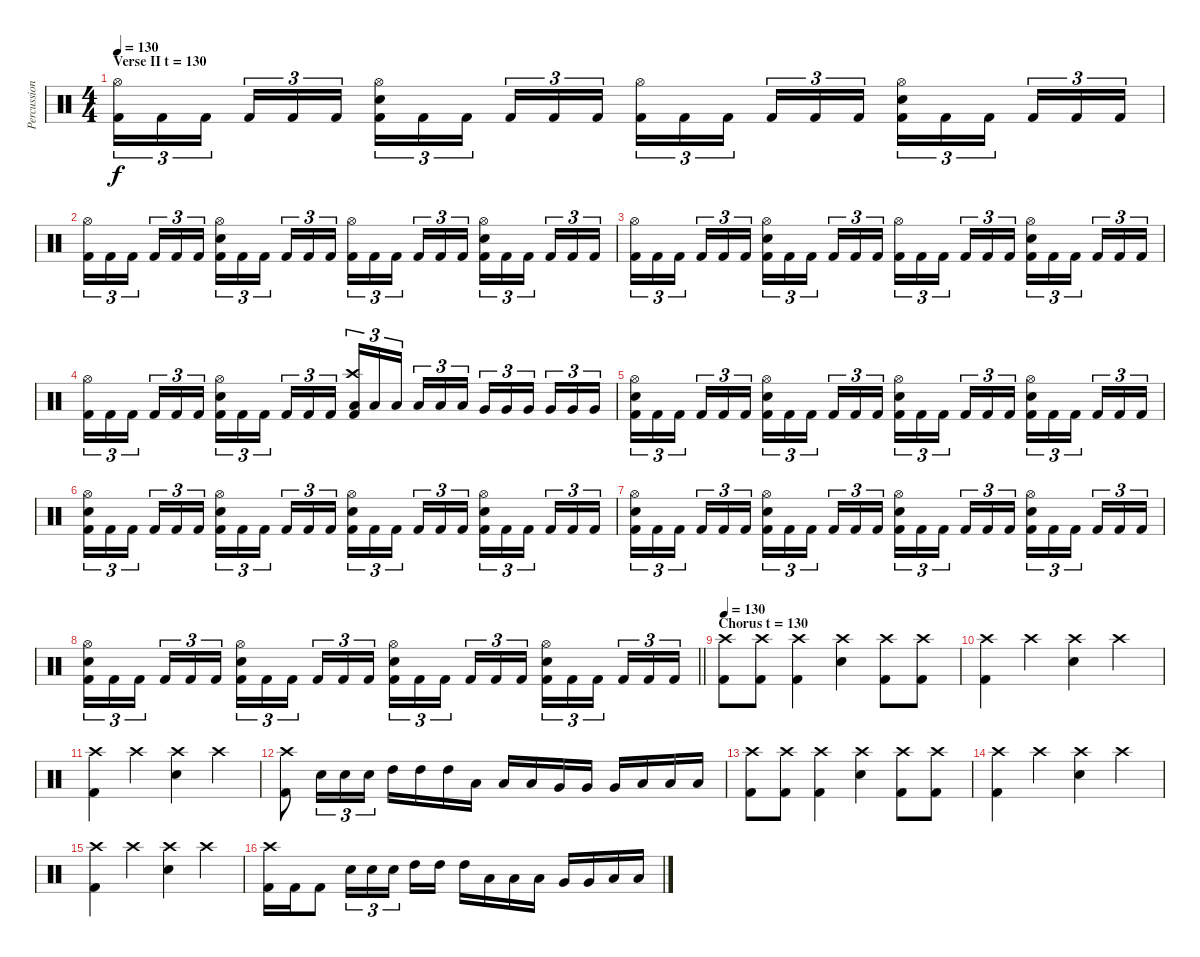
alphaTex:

\track ("Percussion" "Percussion") {instrument percussion}
\staff {score}
\articulation defaults
\ts (4 4)
\section ("" "Verse II t = 130")
\tempo 130
\clef neutral
\ks c
("Hi-Hat (open)" "Kick (hit) 2").16{tu (3 2) dy f} "Kick (hit) 2".16{tu (3 2)} "Kick (hit) 2".16{tu (3 2) beam splitsecondary} "Kick (hit) 2".16{tu (3 2)} "Kick (hit) 2".16{tu (3 2)} "Kick (hit) 2".16{tu (3 2)} ("Hi-Hat (open)" "Electric Snare (hit)" "Kick (hit) 2").16{tu (3 2)} "Kick (hit) 2".16{tu (3 2)} "Kick (hit) 2".16{tu (3 2) beam splitsecondary} "Kick (hit) 2".16{tu (3 2)} "Kick (hit) 2".16{tu (3 2)} "Kick (hit) 2".16{tu (3 2)} ("Hi-Hat (open)" "Kick (hit) 2").16{tu (3 2)} "Kick (hit) 2".16{tu (3 2)} "Kick (hit) 2".16{tu (3 2) beam splitsecondary} "Kick (hit) 2".16{tu (3 2)} "Kick (hit) 2".16{tu (3 2)} "Kick (hit) 2".16{tu (3 2)} ("Hi-Hat (open)" "Electric Snare (hit)" "Kick (hit) 2").16{tu (3 2)} "Kick (hit) 2".16{tu (3 2)} "Kick (hit) 2".16{tu (3 2) beam splitsecondary} "Kick (hit) 2".16{tu (3 2)} "Kick (hit) 2".16{tu (3 2)} "Kick (hit) 2".16{tu (3 2)} |
("Hi-Hat (open)" "Kick (hit) 2").16{tu (3 2)} "Kick (hit) 2".16{tu (3 2)} "Kick (hit) 2".16{tu (3 2) beam splitsecondary} "Kick (hit) 2".16{tu (3 2)} "Kick (hit) 2".16{tu (3 2)} "Kick (hit) 2".16{tu (3 2)} ("Hi-Hat (open)" "Electric Snare (hit)" "Kick (hit) 2").16{tu (3 2)} "Kick (hit) 2".16{tu (3 2)} "Kick (hit) 2".16{tu (3 2) beam splitsecondary} "Kick (hit) 2".16{tu (3 2)} "Kick (hit) 2".16{tu (3 2)} "Kick (hit) 2".16{tu (3 2)} ("Hi-Hat (open)" "Kick (hit) 2").16{tu (3 2)} "Kick (hit) 2".16{tu (3 2)} "Kick (hit) 2".16{tu (3 2) beam splitsecondary} "Kick (hit) 2".16{tu (3 2)} "Kick (hit) 2".16{tu (3 2)} "Kick (hit) 2".16{tu (3 2)} ("Hi-Hat (open)" "Electric Snare (hit)" "Kick (hit) 2").16{tu (3 2)} "Kick (hit) 2".16{tu (3 2)} "Kick (hit) 2".16{tu (3 2) beam splitsecondary} "Kick (hit) 2".16{tu (3 2)} "Kick (hit) 2".16{tu (3 2)} "Kick (hit) 2".16{tu (3 2)} |
("Hi-Hat (open)" "Kick (hit) 2").16{tu (3 2)} "Kick (hit) 2".16{tu (3 2)} "Kick (hit) 2".16{tu (3 2) beam splitsecondary} "Kick (hit) 2".16{tu (3 2)} "Kick (hit) 2".16{tu (3 2)} "Kick (hit) 2".16{tu (3 2)} ("Hi-Hat (open)" "Electric Snare (hit)" "Kick (hit) 2").16{tu (3 2)} "Kick (hit) 2".16{tu (3 2)} "Kick (hit) 2".16{tu (3 2) beam splitsecondary} "Kick (hit) 2".16{tu (3 2)} "Kick (hit) 2".16{tu (3 2)} "Kick (hit) 2".16{tu (3 2)} ("Hi-Hat (open)" "Kick (hit) 2").16{tu (3 2)} "Kick (hit) 2".16{tu (3 2)} "Kick (hit) 2".16{tu (3 2) beam splitsecondary} "Kick (hit) 2".16{tu (3 2)} "Kick (hit) 2".16{tu (3 2)} "Kick (hit) 2".16{tu (3 2)} ("Hi-Hat (open)" "Electric Snare (hit)" "Kick (hit) 2").16{tu (3 2)} "Kick (hit) 2".16{tu (3 2)} "Kick (hit) 2".16{tu (3 2) beam splitsecondary} "Kick (hit) 2".16{tu (3 2)} "Kick (hit) 2".16{tu (3 2)} "Kick (hit) 2".16{tu (3 2)} |
("Hi-Hat (open)" "Kick (hit) 2").16{tu (3 2)} "Kick (hit) 2".16{tu (3 2)} "Kick (hit) 2".16{tu (3 2) beam splitsecondary} "Kick (hit) 2".16{tu (3 2)} "Kick (hit) 2".16{tu (3 2)} "Kick (hit) 2".16{tu (3 2)} ("Hi-Hat (open)" "Electric Snare (hit)" "Kick (hit) 2").16{tu (3 2)} "Kick (hit) 2".16{tu (3 2)} "Kick (hit) 2".16{tu (3 2) beam splitsecondary} "Kick (hit) 2".16{tu (3 2)} "Kick (hit) 2".16{tu (3 2)} "Kick (hit) 2".16{tu (3 2)} ("Crash high (hit)" "Low Tom (hit)" "Kick (hit) 2").16{tu (3 2)} "Low Tom (hit)".16{tu (3 2)} "Low Tom (hit)".16{tu (3 2) beam splitsecondary} "Low Tom (hit)".16{tu (3 2)} "Low Tom (hit)".16{tu (3 2)} "Low Tom (hit)".16{tu (3 2)} "Very Low Tom (hit)".16{tu (3 2)} "Very Low Tom (hit)".16{tu (3 2)} "Very Low Tom (hit)".16{tu (3 2) beam splitsecondary} "Very Low Tom (hit)".16{tu (3 2)} "Very Low Tom (hit)".16{tu (3 2)} "Very Low Tom (hit)".16{tu (3 2)} |
("Hi-Hat (open)" "Electric Snare (hit)" "Kick (hit) 2").16{tu (3 2)} "Kick (hit) 2".16{tu (3 2)} "Kick (hit) 2".16{tu (3 2) beam splitsecondary} "Kick (hit) 2".16{tu (3 2)} "Kick (hit) 2".16{tu (3 2)} "Kick (hit) 2".16{tu (3 2)} ("Hi-Hat (open)" "Electric Snare (hit)" "Kick (hit) 2").16{tu (3 2)} "Kick (hit) 2".16{tu (3 2)} "Kick (hit) 2".16{tu (3 2) beam splitsecondary} "Kick (hit) 2".16{tu (3 2)} "Kick (hit) 2".16{tu (3 2)} "Kick (hit) 2".16{tu (3 2)} ("Hi-Hat (open)" "Electric Snare (hit)" "Kick (hit) 2").16{tu (3 2)} "Kick (hit) 2".16{tu (3 2)} "Kick (hit) 2".16{tu (3 2) beam splitsecondary} "Kick (hit) 2".16{tu (3 2)} "Kick (hit) 2".16{tu (3 2)} "Kick (hit) 2".16{tu (3 2)} ("Hi-Hat (open)" "Electric Snare (hit)" "Kick (hit) 2").16{tu (3 2)} "Kick (hit) 2".16{tu (3 2)} "Kick (hit) 2".16{tu (3 2) beam splitsecondary} "Kick (hit) 2".16{tu (3 2)} "Kick (hit) 2".16{tu (3 2)} "Kick (hit) 2".16{tu (3 2)} |
("Hi-Hat (open)" "Electric Snare (hit)" "Kick (hit) 2").16{tu (3 2)} "Kick (hit) 2".16{tu (3 2)} "Kick (hit) 2".16{tu (3 2) beam splitsecondary} "Kick (hit) 2".16{tu (3 2)} "Kick (hit) 2".16{tu (3 2)} "Kick (hit) 2".16{tu (3 2)} ("Hi-Hat (open)" "Electric Snare (hit)" "Kick (hit) 2").16{tu (3 2)} "Kick (hit) 2".16{tu (3 2)} "Kick (hit) 2".16{tu (3 2) beam splitsecondary} "Kick (hit) 2".16{tu (3 2)} "Kick (hit) 2".16{tu (3 2)} "Kick (hit) 2".16{tu (3 2)} ("Hi-Hat (open)" "Electric Snare (hit)" "Kick (hit) 2").16{tu (3 2)} "Kick (hit) 2".16{tu (3 2)} "Kick (hit) 2".16{tu (3 2) beam splitsecondary} "Kick (hit) 2".16{tu (3 2)} "Kick (hit) 2".16{tu (3 2)} "Kick (hit) 2".16{tu (3 2)} ("Hi-Hat (open)" "Electric Snare (hit)" "Kick (hit) 2").16{tu (3 2)} "Kick (hit) 2".16{tu (3 2)} "Kick (hit) 2".16{tu (3 2) beam splitsecondary} "Kick (hit) 2".16{tu (3 2)} "Kick (hit) 2".16{tu (3 2)} "Kick (hit) 2".16{tu (3 2)} |
("Hi-Hat (open)" "Electric Snare (hit)" "Kick (hit) 2").16{tu (3 2)} "Kick (hit) 2".16{tu (3 2)} "Kick (hit) 2".16{tu (3 2) beam splitsecondary} "Kick (hit) 2".16{tu (3 2)} "Kick (hit) 2".16{tu (3 2)} "Kick (hit) 2".16{tu (3 2)} ("Hi-Hat (open)" "Electric Snare (hit)" "Kick (hit) 2").16{tu (3 2)} "Kick (hit) 2".16{tu (3 2)} "Kick (hit) 2".16{tu (3 2) beam splitsecondary} "Kick (hit) 2".16{tu (3 2)} "Kick (hit) 2".16{tu (3 2)} "Kick (hit) 2".16{tu (3 2)} ("Hi-Hat (open)" "Electric Snare (hit)" "Kick (hit) 2").16{tu (3 2)} "Kick (hit) 2".16{tu (3 2)} "Kick (hit) 2".16{tu (3 2) beam splitsecondary} "Kick (hit) 2".16{tu (3 2)} "Kick (hit) 2".16{tu (3 2)} "Kick (hit) 2".16{tu (3 2)} ("Hi-Hat (open)" "Electric Snare (hit)" "Kick (hit) 2").16{tu (3 2)} "Kick (hit) 2".16{tu (3 2)} "Kick (hit) 2".16{tu (3 2) beam splitsecondary} "Kick (hit) 2".16{tu (3 2)} "Kick (hit) 2".16{tu (3 2)} "Kick (hit) 2".16{tu (3 2)} |
\barLineRight lightlight
("Hi-Hat (open)" "Electric Snare (hit)" "Kick (hit) 2").16{tu (3 2)} "Kick (hit) 2".16{tu (3 2)} "Kick (hit) 2".16{tu (3 2) beam splitsecondary} "Kick (hit) 2".16{tu (3 2)} "Kick (hit) 2".16{tu (3 2)} "Kick (hit) 2".16{tu (3 2)} ("Hi-Hat (open)" "Electric Snare (hit)" "Kick (hit) 2").16{tu (3 2)} "Kick (hit) 2".16{tu (3 2)} "Kick (hit) 2".16{tu (3 2) beam splitsecondary} "Kick (hit) 2".16{tu (3 2)} "Kick (hit) 2".16{tu (3 2)} "Kick (hit) 2".16{tu (3 2)} ("Hi-Hat (open)" "Electric Snare (hit)" "Kick (hit) 2").16{tu (3 2)} "Kick (hit) 2".16{tu (3 2)} "Kick (hit) 2".16{tu (3 2) beam splitsecondary} "Kick (hit) 2".16{tu (3 2)} "Kick (hit) 2".16{tu (3 2)} "Kick (hit) 2".16{tu (3 2)} ("Hi-Hat (open)" "Electric Snare (hit)" "Kick (hit) 2").16{tu (3 2)} "Kick (hit) 2".16{tu (3 2)} "Kick (hit) 2".16{tu (3 2) beam splitsecondary} "Kick (hit) 2".16{tu (3 2)} "Kick (hit) 2".16{tu (3 2)} "Kick (hit) 2".16{tu (3 2)} |
\section ("" "Chorus t = 130")
\tempo 130
("Crash high (hit)" "Kick (hit) 2").8 ("Crash high (hit)" "Kick (hit) 2").8 ("Crash high (hit)" "Kick (hit) 2").4 ("Crash high (hit)" "Electric Snare (hit)").4 ("Crash high (hit)" "Kick (hit) 2").8 ("Crash high (hit)" "Kick (hit) 2").8 |
("Crash high (hit)" "Kick (hit) 2").4 "Crash high (hit)".4 ("Crash high (hit)" "Electric Snare (hit)").4 "Crash high (hit)".4 |
("Crash high (hit)" "Kick (hit) 2").4 "Crash high (hit)".4 ("Crash high (hit)" "Electric Snare (hit)").4 "Crash high (hit)".4 |
("Crash high (hit)" "Kick (hit) 2").8 "Electric Snare (hit)".16{tu (3 2)} "Electric Snare (hit)".16{tu (3 2)} "Electric Snare (hit)".16{tu (3 2)} "High Tom (hit)".16 "High Tom (hit)".16 "High Tom (hit)".16 "Low Tom (hit)".16 "Low Tom (hit)".16 "Low Tom (hit)".16 "Very Low Tom (hit)".16 "Very Low Tom (hit)".16 "Very Low Tom (hit)".16 "Low Floor Tom (hit)".16 "Low Floor Tom (hit)".16 "Low Floor Tom (hit)".16 |
("Crash high (hit)" "Kick (hit) 2").8 ("Crash high (hit)" "Kick (hit) 2").8 ("Crash high (hit)" "Kick (hit) 2").4 ("Crash high (hit)" "Electric Snare (hit)").4 ("Crash high (hit)" "Kick (hit) 2").8 ("Crash high (hit)" "Kick (hit) 2").8 |
("Crash high (hit)" "Kick (hit) 2").4 "Crash high (hit)".4 ("Crash high (hit)" "Electric Snare (hit)").4 "Crash high (hit)".4 |
("Crash high (hit)" "Kick (hit) 2").4 "Crash high (hit)".4 ("Crash high (hit)" "Electric Snare (hit)").4 "Crash high (hit)".4 |
("Crash high (hit)" "Kick (hit) 2").16 "Kick (hit) 2".16 "Kick (hit) 2".8 "Electric Snare (hit)".16{tu (3 2)} "Electric Snare (hit)".16{tu (3 2)} "Electric Snare (hit)".16{tu (3 2) beam splitsecondary} "High Tom (hit)".16 "High Tom (hit)".16 "High Tom (hit)".16 "Low Tom (hit)".16 "Low Tom (hit)".16 "Low Tom (hit)".16 "Very Low Tom (hit)".16 "Very Low Tom (hit)".16 "Low Floor Tom (hit)".16 "Low Floor Tom (hit)".16
